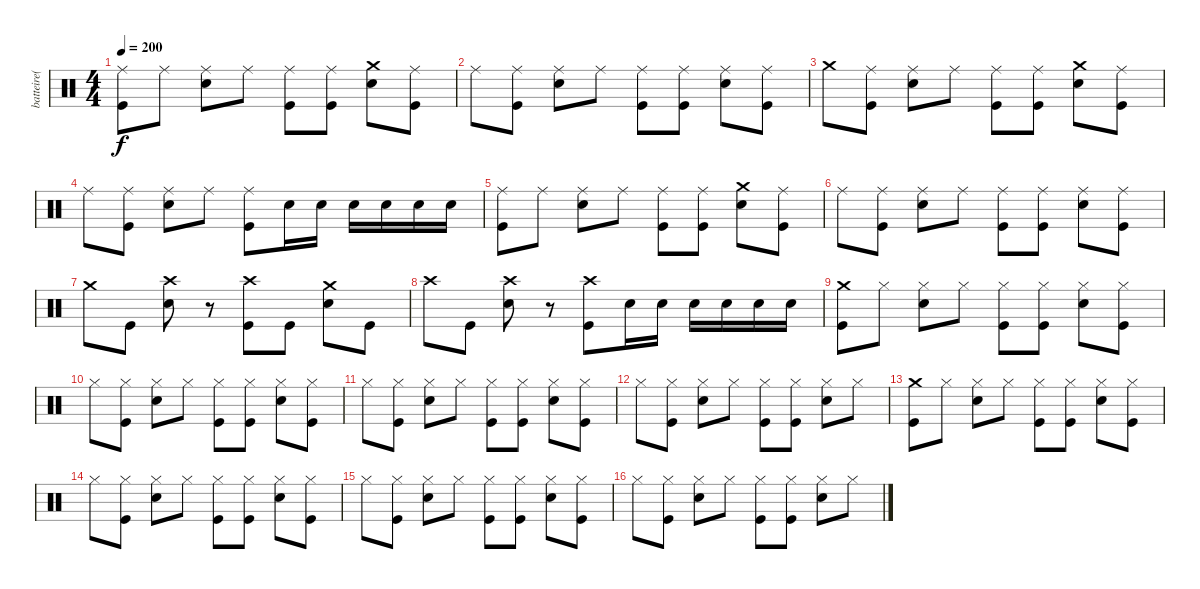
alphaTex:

\track ("batteire( Danny Alaro )" "batteire( ") {instrument percussion}
\staff {score}
\articulation defaults
\ts (4 4)
\tempo 200
\clef neutral
\ks c
("Ride (middle)" "Kick (hit)").8{dy f} "Ride (middle)".8 ("Ride (middle)" "Snare (hit) 2").8 "Ride (middle)".8 ("Ride (middle)" "Kick (hit)").8 ("Ride (middle)" "Kick (hit)").8 ("Crash medium (hit)" "Snare (hit) 2").8 ("Ride (middle)" "Kick (hit)").8 |
"Ride (middle)".8 ("Ride (middle)" "Kick (hit)").8 ("Ride (middle)" "Snare (hit) 2").8 "Ride (middle)".8 ("Ride (middle)" "Kick (hit)").8 ("Ride (middle)" "Kick (hit)").8 ("Ride (middle)" "Snare (hit) 2").8 ("Ride (middle)" "Kick (hit)").8 |
"Crash medium (hit)".8 ("Ride (middle)" "Kick (hit)").8 ("Ride (middle)" "Snare (hit) 2").8 "Ride (middle)".8 ("Ride (middle)" "Kick (hit)").8 ("Ride (middle)" "Kick (hit)").8 ("Crash medium (hit)" "Snare (hit) 2").8 ("Ride (middle)" "Kick (hit)").8 |
"Ride (middle)".8 ("Ride (middle)" "Kick (hit)").8 ("Ride (middle)" "Snare (hit) 2").8 "Ride (middle)".8 ("Ride (middle)" "Kick (hit)").8 "Snare (hit) 2".16 "Snare (hit) 2".16 "Snare (hit) 2".16 "Snare (hit) 2".16 "Snare (hit) 2".16 "Snare (hit) 2".16 |
("Ride (middle)" "Kick (hit)").8 "Ride (middle)".8 ("Ride (middle)" "Snare (hit) 2").8 "Ride (middle)".8 ("Ride (middle)" "Kick (hit)").8 ("Ride (middle)" "Kick (hit)").8 ("Crash medium (hit)" "Snare (hit) 2").8 ("Ride (middle)" "Kick (hit)").8 |
"Ride (middle)".8 ("Ride (middle)" "Kick (hit)").8 ("Ride (middle)" "Snare (hit) 2").8 "Ride (middle)".8 ("Ride (middle)" "Kick (hit)").8 ("Ride (middle)" "Kick (hit)").8 ("Ride (middle)" "Snare (hit) 2").8 ("Ride (middle)" "Kick (hit)").8 |
"Crash medium (hit)".8 "Kick (hit)".8 ("Crash high (hit)" "Snare (hit) 2").8 r.8 ("Crash high (hit)" "Kick (hit)").8 "Kick (hit)".8 ("Crash medium (hit)" "Snare (hit) 2").8 "Kick (hit)".8 |
"Crash high (hit)".8 "Kick (hit)".8 ("Crash high (hit)" "Snare (hit) 2").8 r.8 ("Crash high (hit)" "Kick (hit)").8 "Snare (hit) 2".16 "Snare (hit) 2".16 "Snare (hit) 2".16 "Snare (hit) 2".16 "Snare (hit) 2".16 "Snare (hit) 2".16 |
("Crash medium (hit)" "Kick (hit)").8 "Hi-Hat (closed)".8 ("Hi-Hat (closed)" "Snare (hit) 2").8 "Hi-Hat (closed)".8 ("Hi-Hat (closed)" "Kick (hit)").8 ("Hi-Hat (closed)" "Kick (hit)").8 ("Hi-Hat (closed)" "Snare (hit) 2").8 ("Hi-Hat (closed)" "Kick (hit)").8 |
"Hi-Hat (closed)".8 ("Hi-Hat (closed)" "Kick (hit)").8 ("Hi-Hat (closed)" "Snare (hit) 2").8 "Hi-Hat (closed)".8 ("Hi-Hat (closed)" "Kick (hit)").8 ("Hi-Hat (closed)" "Kick (hit)").8 ("Hi-Hat (closed)" "Snare (hit) 2").8 ("Hi-Hat (closed)" "Kick (hit)").8 |
"Hi-Hat (closed)".8 ("Hi-Hat (closed)" "Kick (hit)").8 ("Hi-Hat (closed)" "Snare (hit) 2").8 "Hi-Hat (closed)".8 ("Hi-Hat (closed)" "Kick (hit)").8 ("Hi-Hat (closed)" "Kick (hit)").8 ("Hi-Hat (closed)" "Snare (hit) 2").8 ("Hi-Hat (closed)" "Kick (hit)").8 |
"Hi-Hat (closed)".8 ("Hi-Hat (closed)" "Kick (hit)").8 ("Hi-Hat (closed)" "Snare (hit) 2").8 "Hi-Hat (closed)".8 ("Hi-Hat (closed)" "Kick (hit)").8 ("Hi-Hat (closed)" "Kick (hit)").8 ("Hi-Hat (closed)" "Snare (hit) 2").8 "Hi-Hat (closed)".8 |
("Crash medium (hit)" "Kick (hit)").8 "Hi-Hat (closed)".8 ("Hi-Hat (closed)" "Snare (hit) 2").8 "Hi-Hat (closed)".8 ("Hi-Hat (closed)" "Kick (hit)").8 ("Hi-Hat (closed)" "Kick (hit)").8 ("Hi-Hat (closed)" "Snare (hit) 2").8 ("Hi-Hat (closed)" "Kick (hit)").8 |
"Hi-Hat (closed)".8 ("Hi-Hat (closed)" "Kick (hit)").8 ("Hi-Hat (closed)" "Snare (hit) 2").8 "Hi-Hat (closed)".8 ("Hi-Hat (closed)" "Kick (hit)").8 ("Hi-Hat (closed)" "Kick (hit)").8 ("Hi-Hat (closed)" "Snare (hit) 2").8 ("Hi-Hat (closed)" "Kick (hit)").8 |
"Hi-Hat (closed)".8 ("Hi-Hat (closed)" "Kick (hit)").8 ("Hi-Hat (closed)" "Snare (hit) 2").8 "Hi-Hat (closed)".8 ("Hi-Hat (closed)" "Kick (hit)").8 ("Hi-Hat (closed)" "Kick (hit)").8 ("Hi-Hat (closed)" "Snare (hit) 2").8 ("Hi-Hat (closed)" "Kick (hit)").8 |
"Hi-Hat (closed)".8 ("Hi-Hat (closed)" "Kick (hit)").8 ("Hi-Hat (closed)" "Snare (hit) 2").8 "Hi-Hat (closed)".8 ("Hi-Hat (closed)" "Kick (hit)").8 ("Hi-Hat (closed)" "Kick (hit)").8 ("Hi-Hat (closed)" "Snare (hit) 2").8 "Hi-Hat (closed)".8
